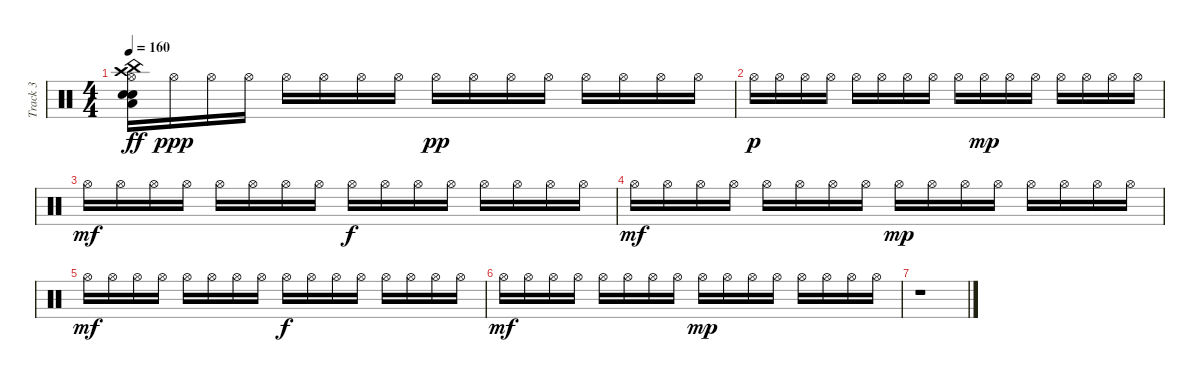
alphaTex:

\track ("Track 3" "Track 3") {instrument percussion}
\staff {score}
\articulation defaults
\ts (4 4)
\tempo 160
\clef neutral
\ks c
("Hi-Hat (open)" "Snare (hit) 2" "Electric Snare (hit)" "Low Floor Tom (hit)" "Crash high (hit)" "China (hit)").16{dy ff} "Hi-Hat (open)".16{dy ppp} "Hi-Hat (open)".16 "Hi-Hat (open)".16 "Hi-Hat (open)".16 "Hi-Hat (open)".16 "Hi-Hat (open)".16 "Hi-Hat (open)".16 "Hi-Hat (open)".16{dy pp} "Hi-Hat (open)".16 "Hi-Hat (open)".16 "Hi-Hat (open)".16 "Hi-Hat (open)".16 "Hi-Hat (open)".16 "Hi-Hat (open)".16 "Hi-Hat (open)".16 |
"Hi-Hat (open)".16{dy p} "Hi-Hat (open)".16 "Hi-Hat (open)".16 "Hi-Hat (open)".16 "Hi-Hat (open)".16 "Hi-Hat (open)".16 "Hi-Hat (open)".16 "Hi-Hat (open)".16 "Hi-Hat (open)".16 "Hi-Hat (open)".16{dy mp} "Hi-Hat (open)".16 "Hi-Hat (open)".16 "Hi-Hat (open)".16 "Hi-Hat (open)".16 "Hi-Hat (open)".16 "Hi-Hat (open)".16 |
"Hi-Hat (open)".16{dy mf} "Hi-Hat (open)".16 "Hi-Hat (open)".16 "Hi-Hat (open)".16 "Hi-Hat (open)".16 "Hi-Hat (open)".16 "Hi-Hat (open)".16 "Hi-Hat (open)".16 "Hi-Hat (open)".16{dy f} "Hi-Hat (open)".16 "Hi-Hat (open)".16 "Hi-Hat (open)".16 "Hi-Hat (open)".16 "Hi-Hat (open)".16 "Hi-Hat (open)".16 "Hi-Hat (open)".16 |
"Hi-Hat (open)".16{dy mf} "Hi-Hat (open)".16 "Hi-Hat (open)".16 "Hi-Hat (open)".16 "Hi-Hat (open)".16 "Hi-Hat (open)".16 "Hi-Hat (open)".16 "Hi-Hat (open)".16 "Hi-Hat (open)".16{dy mp} "Hi-Hat (open)".16 "Hi-Hat (open)".16 "Hi-Hat (open)".16 "Hi-Hat (open)".16 "Hi-Hat (open)".16 "Hi-Hat (open)".16 "Hi-Hat (open)".16 |
"Hi-Hat (open)".16{dy mf} "Hi-Hat (open)".16 "Hi-Hat (open)".16 "Hi-Hat (open)".16 "Hi-Hat (open)".16 "Hi-Hat (open)".16 "Hi-Hat (open)".16 "Hi-Hat (open)".16 "Hi-Hat (open)".16{dy f} "Hi-Hat (open)".16 "Hi-Hat (open)".16 "Hi-Hat (open)".16 "Hi-Hat (open)".16 "Hi-Hat (open)".16 "Hi-Hat (open)".16 "Hi-Hat (open)".16 |
"Hi-Hat (open)".16{dy mf} "Hi-Hat (open)".16 "Hi-Hat (open)".16 "Hi-Hat (open)".16 "Hi-Hat (open)".16 "Hi-Hat (open)".16 "Hi-Hat (open)".16 "Hi-Hat (open)".16 "Hi-Hat (open)".16{dy mp} "Hi-Hat (open)".16 "Hi-Hat (open)".16 "Hi-Hat (open)".16 "Hi-Hat (open)".16 "Hi-Hat (open)".16 "Hi-Hat (open)".16 "Hi-Hat (open)".16 |
r.1
